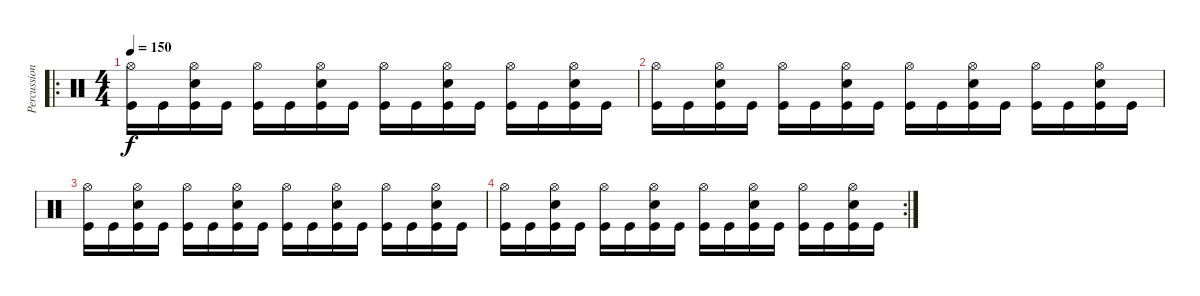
\track ("Percussion" "Percussion") {instrument percussion}
\staff {score}
\articulation defaults
\ro
\ts (4 4)
\tempo 150
\clef neutral
\ks c
("Hi-Hat (open)" "Kick (hit)").16{dy f} "Kick (hit)".16 ("Hi-Hat (open)" "Snare (hit) 2" "Kick (hit)").16 "Kick (hit)".16 ("Hi-Hat (open)" "Kick (hit)").16 "Kick (hit)".16 ("Hi-Hat (open)" "Snare (hit) 2" "Kick (hit)").16 "Kick (hit)".16 ("Hi-Hat (open)" "Kick (hit)").16 "Kick (hit)".16 ("Hi-Hat (open)" "Snare (hit) 2" "Kick (hit)").16 "Kick (hit)".16 ("Hi-Hat (open)" "Kick (hit)").16 "Kick (hit)".16 ("Hi-Hat (open)" "Snare (hit) 2" "Kick (hit)").16 "Kick (hit)".16 |
("Hi-Hat (open)" "Kick (hit)").16 "Kick (hit)".16 ("Hi-Hat (open)" "Snare (hit) 2" "Kick (hit)").16 "Kick (hit)".16 ("Hi-Hat (open)" "Kick (hit)").16 "Kick (hit)".16 ("Hi-Hat (open)" "Snare (hit) 2" "Kick (hit)").16 "Kick (hit)".16 ("Hi-Hat (open)" "Kick (hit)").16 "Kick (hit)".16 ("Hi-Hat (open)" "Snare (hit) 2" "Kick (hit)").16 "Kick (hit)".16 ("Hi-Hat (open)" "Kick (hit)").16 "Kick (hit)".16 ("Hi-Hat (open)" "Snare (hit) 2" "Kick (hit)").16 "Kick (hit)".16 |
("Hi-Hat (open)" "Kick (hit)").16 "Kick (hit)".16 ("Hi-Hat (open)" "Snare (hit) 2" "Kick (hit)").16 "Kick (hit)".16 ("Hi-Hat (open)" "Kick (hit)").16 "Kick (hit)".16 ("Hi-Hat (open)" "Snare (hit) 2" "Kick (hit)").16 "Kick (hit)".16 ("Hi-Hat (open)" "Kick (hit)").16 "Kick (hit)".16 ("Hi-Hat (open)" "Snare (hit) 2" "Kick (hit)").16 "Kick (hit)".16 ("Hi-Hat (open)" "Kick (hit)").16 "Kick (hit)".16 ("Hi-Hat (open)" "Snare (hit) 2" "Kick (hit)").16 "Kick (hit)".16 |
\rc 2
("Hi-Hat (open)" "Kick (hit)").16 "Kick (hit)".16 ("Hi-Hat (open)" "Snare (hit) 2" "Kick (hit)").16 "Kick (hit)".16 ("Hi-Hat (open)" "Kick (hit)").16 "Kick (hit)".16 ("Hi-Hat (open)" "Snare (hit) 2" "Kick (hit)").16 "Kick (hit)".16 ("Hi-Hat (open)" "Kick (hit)").16 "Kick (hit)".16 ("Hi-Hat (open)" "Snare (hit) 2" "Kick (hit)").16 "Kick (hit)".16 ("Hi-Hat (open)" "Kick (hit)").16 "Kick (hit)".16 ("Hi-Hat (open)" "Snare (hit) 2" "Kick (hit)").16 "Kick (hit)".16
